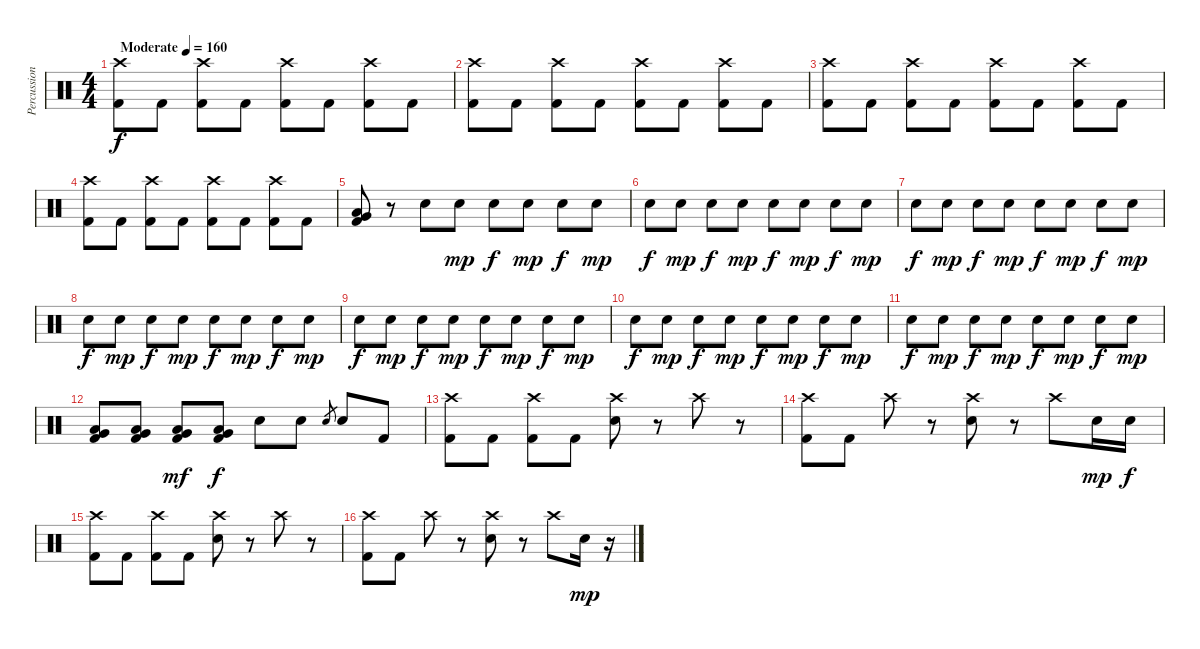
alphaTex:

\track ("Percussion" "Percussion") {instrument percussion}
\staff {score}
\articulation defaults
\ts (4 4)
\tempo (160 "Moderate")
\clef neutral
\ks c
("Crash high (hit)" "Kick (hit) 2").8{dy f} "Kick (hit) 2".8 ("Crash high (hit)" "Kick (hit) 2").8 "Kick (hit) 2".8 ("Crash high (hit)" "Kick (hit) 2").8 "Kick (hit) 2".8 ("Crash high (hit)" "Kick (hit) 2").8 "Kick (hit) 2".8 |
("Crash high (hit)" "Kick (hit) 2").8 "Kick (hit) 2".8 ("Crash high (hit)" "Kick (hit) 2").8 "Kick (hit) 2".8 ("Crash high (hit)" "Kick (hit) 2").8 "Kick (hit) 2".8 ("Crash high (hit)" "Kick (hit) 2").8 "Kick (hit) 2".8 |
("Crash high (hit)" "Kick (hit) 2").8 "Kick (hit) 2".8 ("Crash high (hit)" "Kick (hit) 2").8 "Kick (hit) 2".8 ("Crash high (hit)" "Kick (hit) 2").8 "Kick (hit) 2".8 ("Crash high (hit)" "Kick (hit) 2").8 "Kick (hit) 2".8 |
("Crash high (hit)" "Kick (hit) 2").8 "Kick (hit) 2".8 ("Crash high (hit)" "Kick (hit) 2").8 "Kick (hit) 2".8 ("Crash high (hit)" "Kick (hit) 2").8 "Kick (hit) 2".8 ("Crash high (hit)" "Kick (hit) 2").8 "Kick (hit) 2".8 |
("Low Tom (hit)" "Very Low Tom (hit)" "Kick (hit) 2").8 r.8 "Metronome (bell)".8 "Metronome (bell)".8{dy mp} "Metronome (bell)".8{dy f} "Metronome (bell)".8{dy mp} "Metronome (bell)".8{dy f} "Metronome (bell)".8{dy mp} |
"Metronome (bell)".8{dy f} "Metronome (bell)".8{dy mp} "Metronome (bell)".8{dy f} "Metronome (bell)".8{dy mp} "Metronome (bell)".8{dy f} "Metronome (bell)".8{dy mp} "Metronome (bell)".8{dy f} "Metronome (bell)".8{dy mp} |
"Metronome (bell)".8{dy f} "Metronome (bell)".8{dy mp} "Metronome (bell)".8{dy f} "Metronome (bell)".8{dy mp} "Metronome (bell)".8{dy f} "Metronome (bell)".8{dy mp} "Metronome (bell)".8{dy f} "Metronome (bell)".8{dy mp} |
"Metronome (bell)".8{dy f} "Metronome (bell)".8{dy mp} "Metronome (bell)".8{dy f} "Metronome (bell)".8{dy mp} "Metronome (bell)".8{dy f} "Metronome (bell)".8{dy mp} "Metronome (bell)".8{dy f} "Metronome (bell)".8{dy mp} |
"Metronome (bell)".8{dy f} "Metronome (bell)".8{dy mp} "Metronome (bell)".8{dy f} "Metronome (bell)".8{dy mp} "Metronome (bell)".8{dy f} "Metronome (bell)".8{dy mp} "Metronome (bell)".8{dy f} "Metronome (bell)".8{dy mp} |
"Metronome (bell)".8{dy f} "Metronome (bell)".8{dy mp} "Metronome (bell)".8{dy f} "Metronome (bell)".8{dy mp} "Metronome (bell)".8{dy f} "Metronome (bell)".8{dy mp} "Metronome (bell)".8{dy f} "Metronome (bell)".8{dy mp} |
"Metronome (bell)".8{dy f} "Metronome (bell)".8{dy mp} "Metronome (bell)".8{dy f} "Metronome (bell)".8{dy mp} "Metronome (bell)".8{dy f} "Metronome (bell)".8{dy mp} "Metronome (bell)".8{dy f} "Metronome (bell)".8{dy mp} |
("Very Low Tom (hit)" "Low Tom (hit)" "Kick (hit) 2").8 ("Very Low Tom (hit)" "Low Tom (hit)" "Kick (hit) 2").8 ("Very Low Tom (hit)" "Low Tom (hit)" "Kick (hit) 2").8{dy mf} ("Very Low Tom (hit)" "Low Tom (hit)" "Kick (hit) 2").8{dy f} "Electric Snare (hit)".8 "Electric Snare (hit)".8 "Electric Snare (hit)".8{gr} "Electric Snare (hit)".8 "Kick (hit) 2".8 |
("Crash high (hit)" "Kick (hit) 2").8 "Kick (hit) 2".8 ("Crash high (hit)" "Kick (hit) 2").8 "Kick (hit) 2".8 ("Crash high (hit)" "Electric Snare (hit)").8 r.8 "Crash high (hit)".8 r.8 |
("Crash high (hit)" "Kick (hit) 2").8 "Kick (hit) 2".8 "Crash high (hit)".8 r.8 ("Crash high (hit)" "Electric Snare (hit)").8 r.8 "Crash high (hit)".8 "Electric Snare (hit)".16{dy mp} "Electric Snare (hit)".16{dy f} |
("Crash high (hit)" "Kick (hit) 2").8 "Kick (hit) 2".8 ("Crash high (hit)" "Kick (hit) 2").8 "Kick (hit) 2".8 ("Crash high (hit)" "Electric Snare (hit)").8 r.8 "Crash high (hit)".8 r.8 |
("Crash high (hit)" "Kick (hit) 2").8 "Kick (hit) 2".8 "Crash high (hit)".8 r.8 ("Crash high (hit)" "Electric Snare (hit)").8 r.8 "Crash high (hit)".8 "Electric Snare (hit)".16{dy mp} r.16
